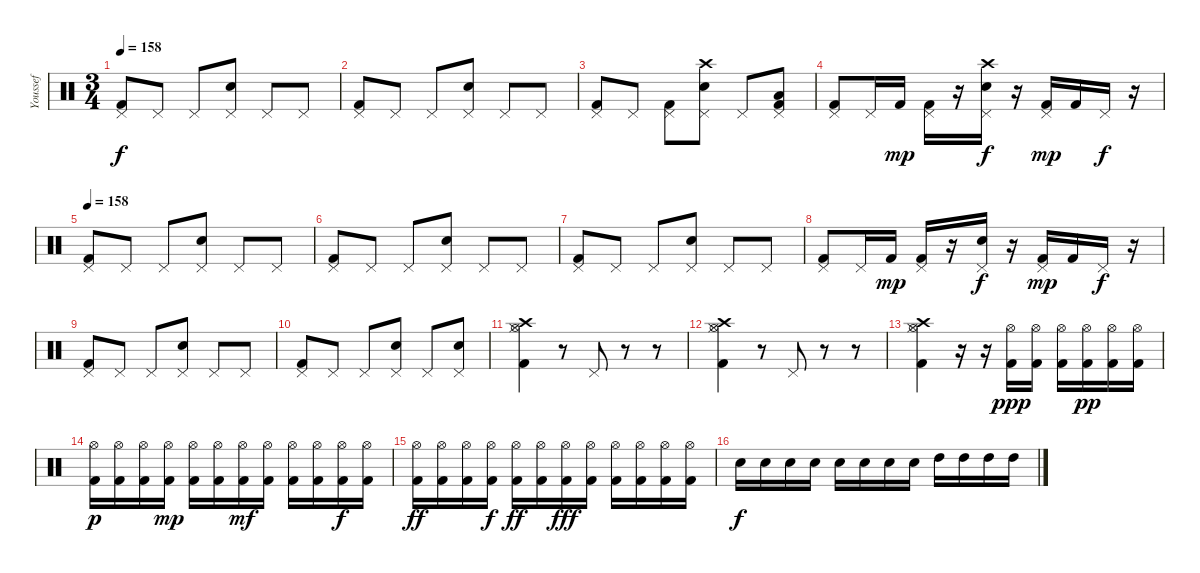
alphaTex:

\track ("Youssef" "Youssef") {instrument percussion}
\staff {score}
\articulation defaults
\ts (3 4)
\tempo 158
\clef neutral
\ks c
("Kick (hit) 2" "Pedal Hi-Hat (hit)").8{dy f} "Pedal Hi-Hat (hit)".8 "Pedal Hi-Hat (hit)".8 ("Electric Snare (hit)" "Pedal Hi-Hat (hit)").8 "Pedal Hi-Hat (hit)".8 "Pedal Hi-Hat (hit)".8 |
("Kick (hit) 2" "Pedal Hi-Hat (hit)").8 "Pedal Hi-Hat (hit)".8 "Pedal Hi-Hat (hit)".8 ("Electric Snare (hit)" "Pedal Hi-Hat (hit)").8 "Pedal Hi-Hat (hit)".8 "Pedal Hi-Hat (hit)".8 |
("Kick (hit) 2" "Pedal Hi-Hat (hit)").8 "Pedal Hi-Hat (hit)".8 ("Kick (hit) 2" "Pedal Hi-Hat (hit)").8 ("Crash high (hit)" "Electric Snare (hit)" "Pedal Hi-Hat (hit)").8 "Pedal Hi-Hat (hit)".8 ("Kick (hit) 2" "Low Tom (hit)" "Pedal Hi-Hat (hit)").8 |
("Kick (hit) 2" "Pedal Hi-Hat (hit)").8 "Pedal Hi-Hat (hit)".16 "Kick (hit) 2".16{dy mp} ("Kick (hit) 2" "Pedal Hi-Hat (hit)").16 r.16 ("Crash high (hit)" "Electric Snare (hit)" "Pedal Hi-Hat (hit)").16{dy f} r.16 ("Kick (hit) 2" "Pedal Hi-Hat (hit)").16{dy mp} "Kick (hit) 2".16 "Pedal Hi-Hat (hit)".16{dy f} r.16 |
\tempo 158
("Kick (hit) 2" "Pedal Hi-Hat (hit)").8 "Pedal Hi-Hat (hit)".8 "Pedal Hi-Hat (hit)".8 ("Electric Snare (hit)" "Pedal Hi-Hat (hit)").8 "Pedal Hi-Hat (hit)".8 "Pedal Hi-Hat (hit)".8 |
("Kick (hit) 2" "Pedal Hi-Hat (hit)").8 "Pedal Hi-Hat (hit)".8 "Pedal Hi-Hat (hit)".8 ("Electric Snare (hit)" "Pedal Hi-Hat (hit)").8 "Pedal Hi-Hat (hit)".8 "Pedal Hi-Hat (hit)".8 |
("Kick (hit) 2" "Pedal Hi-Hat (hit)").8 "Pedal Hi-Hat (hit)".8 "Pedal Hi-Hat (hit)".8 ("Electric Snare (hit)" "Pedal Hi-Hat (hit)").8 "Pedal Hi-Hat (hit)".8 "Pedal Hi-Hat (hit)".8 |
("Kick (hit) 2" "Pedal Hi-Hat (hit)").8 "Pedal Hi-Hat (hit)".16 "Kick (hit) 2".16{dy mp} ("Kick (hit) 2" "Pedal Hi-Hat (hit)").16 r.16 ("Electric Snare (hit)" "Pedal Hi-Hat (hit)").16{dy f} r.16 ("Kick (hit) 2" "Pedal Hi-Hat (hit)").16{dy mp} "Kick (hit) 2".16 "Pedal Hi-Hat (hit)".16{dy f} r.16 |
("Kick (hit) 2" "Pedal Hi-Hat (hit)").8 "Pedal Hi-Hat (hit)".8 "Pedal Hi-Hat (hit)".8 ("Electric Snare (hit)" "Pedal Hi-Hat (hit)").8 "Pedal Hi-Hat (hit)".8 "Pedal Hi-Hat (hit)".8 |
("Kick (hit) 2" "Pedal Hi-Hat (hit)").8 "Pedal Hi-Hat (hit)".8 "Pedal Hi-Hat (hit)".8 ("Electric Snare (hit)" "Pedal Hi-Hat (hit)").8 "Pedal Hi-Hat (hit)".8 ("Electric Snare (hit)" "Pedal Hi-Hat (hit)").8 |
("Kick (hit) 2" "Hi-Hat (closed)" "Hi-Hat (open)" "Crash high (hit)").4 r.8 "Pedal Hi-Hat (hit)".8 r.8 r.8 |
("Kick (hit) 2" "Hi-Hat (closed)" "Hi-Hat (open)" "Crash high (hit)").4 r.8 "Pedal Hi-Hat (hit)".8 r.8 r.8 |
("Kick (hit) 2" "Hi-Hat (closed)" "Hi-Hat (open)" "Crash high (hit)").4 r.16 r.16 ("Kick (hit) 2" "Hi-Hat (open)").16{dy ppp} ("Kick (hit) 2" "Hi-Hat (open)").16 ("Kick (hit) 2" "Hi-Hat (open)").16 ("Kick (hit) 2" "Hi-Hat (open)").16{dy pp} ("Kick (hit) 2" "Hi-Hat (open)").16 ("Kick (hit) 2" "Hi-Hat (open)").16 |
("Kick (hit) 2" "Hi-Hat (open)").16{dy p} ("Kick (hit) 2" "Hi-Hat (open)").16 ("Kick (hit) 2" "Hi-Hat (open)").16 ("Kick (hit) 2" "Hi-Hat (open)").16{dy mp} ("Kick (hit) 2" "Hi-Hat (open)").16 ("Kick (hit) 2" "Hi-Hat (open)").16 ("Kick (hit) 2" "Hi-Hat (open)").16{dy mf} ("Kick (hit) 2" "Hi-Hat (open)").16 ("Kick (hit) 2" "Hi-Hat (open)").16 ("Kick (hit) 2" "Hi-Hat (open)").16 ("Kick (hit) 2" "Hi-Hat (open)").16{dy f} ("Kick (hit) 2" "Hi-Hat (open)").16 |
("Kick (hit) 2" "Hi-Hat (open)").16{dy ff} ("Kick (hit) 2" "Hi-Hat (open)").16 ("Kick (hit) 2" "Hi-Hat (open)").16 ("Kick (hit) 2" "Hi-Hat (open)").16{dy f} ("Kick (hit) 2" "Hi-Hat (open)").16{dy ff} ("Kick (hit) 2" "Hi-Hat (open)").16 ("Kick (hit) 2" "Hi-Hat (open)").16{dy fff} ("Kick (hit) 2" "Hi-Hat (open)").16 ("Kick (hit) 2" "Hi-Hat (open)").16 ("Kick (hit) 2" "Hi-Hat (open)").16 ("Kick (hit) 2" "Hi-Hat (open)").16 ("Kick (hit) 2" "Hi-Hat (open)").16 |
"Electric Snare (hit)".16{dy f} "Electric Snare (hit)".16 "Electric Snare (hit)".16 "Electric Snare (hit)".16 "Electric Snare (hit)".16 "Electric Snare (hit)".16 "Electric Snare (hit)".16 "Electric Snare (hit)".16 "High Tom (hit)".16 "High Tom (hit)".16 "High Tom (hit)".16 "High Tom (hit)".16
